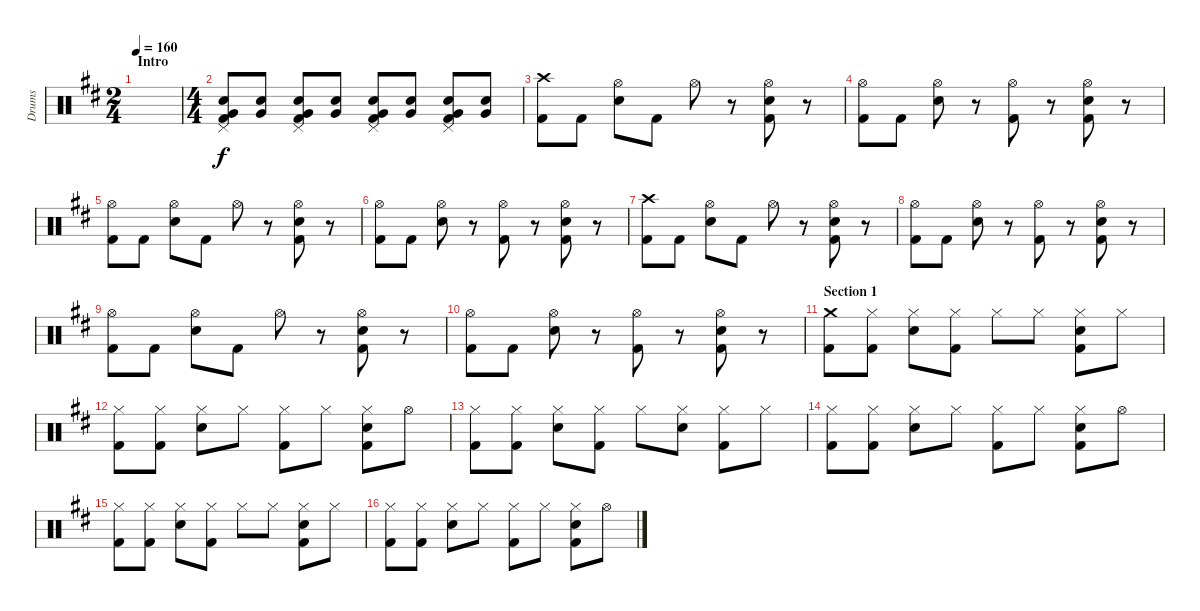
\track ("Drums" "Drums") {instrument percussion}
\staff {score}
\articulation defaults
\ts (2 4)
\section ("" "Intro")
\tempo 160
\clef neutral
\ks bminor
|
\ts (4 4)
("Pedal Hi-Hat (hit)" "Snare (hit) 2" "Very Low Tom (hit)" "Kick (hit) 2").8{volume 14} ("Snare (hit) 2" "Very Low Tom (hit)").8 ("Pedal Hi-Hat (hit)" "Snare (hit) 2" "Very Low Tom (hit)" "Kick (hit) 2").8 ("Snare (hit) 2" "Very Low Tom (hit)").8 ("Pedal Hi-Hat (hit)" "Snare (hit) 2" "Very Low Tom (hit)" "Kick (hit) 2").8 ("Snare (hit) 2" "Very Low Tom (hit)").8 ("Pedal Hi-Hat (hit)" "Snare (hit) 2" "Very Low Tom (hit)" "Kick (hit) 2").8 ("Snare (hit) 2" "Very Low Tom (hit)").8 |
("Crash high (hit)" "Kick (hit) 2").8{volume 14} "Kick (hit) 2".8 ("Hi-Hat (open)" "Snare (hit) 2").8 "Kick (hit) 2".8 "Hi-Hat (open)".8 r.8 ("Hi-Hat (open)" "Snare (hit) 2" "Kick (hit) 2").8 r.8 |
("Hi-Hat (open)" "Kick (hit) 2").8 "Kick (hit) 2".8 ("Hi-Hat (open)" "Snare (hit) 2").8 r.8 ("Hi-Hat (open)" "Kick (hit) 2").8 r.8 ("Hi-Hat (open)" "Snare (hit) 2" "Kick (hit) 2").8 r.8 |
("Hi-Hat (open)" "Kick (hit) 2").8 "Kick (hit) 2".8 ("Hi-Hat (open)" "Snare (hit) 2").8 "Kick (hit) 2".8 "Hi-Hat (open)".8 r.8 ("Hi-Hat (open)" "Snare (hit) 2" "Kick (hit) 2").8 r.8 |
("Hi-Hat (open)" "Kick (hit) 2").8 "Kick (hit) 2".8 ("Hi-Hat (open)" "Snare (hit) 2").8 r.8 ("Hi-Hat (open)" "Kick (hit) 2").8 r.8 ("Hi-Hat (open)" "Snare (hit) 2" "Kick (hit) 2").8 r.8 |
("Crash high (hit)" "Kick (hit) 2").8 "Kick (hit) 2".8 ("Hi-Hat (open)" "Snare (hit) 2").8 "Kick (hit) 2".8 "Hi-Hat (open)".8 r.8 ("Hi-Hat (open)" "Snare (hit) 2" "Kick (hit) 2").8 r.8 |
("Hi-Hat (open)" "Kick (hit) 2").8 "Kick (hit) 2".8 ("Hi-Hat (open)" "Snare (hit) 2").8 r.8 ("Hi-Hat (open)" "Kick (hit) 2").8 r.8 ("Hi-Hat (open)" "Snare (hit) 2" "Kick (hit) 2").8 r.8 |
("Hi-Hat (open)" "Kick (hit) 2").8 "Kick (hit) 2".8 ("Hi-Hat (open)" "Snare (hit) 2").8 "Kick (hit) 2".8 "Hi-Hat (open)".8 r.8 ("Hi-Hat (open)" "Snare (hit) 2" "Kick (hit) 2").8 r.8 |
("Hi-Hat (open)" "Kick (hit) 2").8 "Kick (hit) 2".8 ("Hi-Hat (open)" "Snare (hit) 2").8 r.8 ("Hi-Hat (open)" "Kick (hit) 2").8 r.8 ("Hi-Hat (open)" "Snare (hit) 2" "Kick (hit) 2").8 r.8 |
\section ("" "Section 1")
("Crash medium (hit)" "Kick (hit) 2").8 ("Hi-Hat (closed)" "Kick (hit) 2").8 ("Hi-Hat (closed)" "Snare (hit) 2").8 ("Hi-Hat (closed)" "Kick (hit) 2").8 "Hi-Hat (closed)".8 "Hi-Hat (closed)".8 ("Hi-Hat (closed)" "Snare (hit) 2" "Kick (hit) 2").8 "Hi-Hat (closed)".8 |
("Hi-Hat (closed)" "Kick (hit) 2").8 ("Hi-Hat (closed)" "Kick (hit) 2").8 ("Hi-Hat (closed)" "Snare (hit) 2").8 "Hi-Hat (closed)".8 ("Hi-Hat (closed)" "Kick (hit) 2").8 "Hi-Hat (closed)".8 ("Hi-Hat (closed)" "Snare (hit) 2" "Kick (hit) 2").8 "Hi-Hat (open)".8 |
("Hi-Hat (closed)" "Kick (hit) 2").8 ("Hi-Hat (closed)" "Kick (hit) 2").8 ("Hi-Hat (closed)" "Snare (hit) 2").8 ("Hi-Hat (closed)" "Kick (hit) 2").8 "Hi-Hat (closed)".8 ("Hi-Hat (closed)" "Snare (hit) 2").8 ("Hi-Hat (closed)" "Kick (hit) 2").8 "Hi-Hat (closed)".8 |
("Hi-Hat (closed)" "Kick (hit) 2").8 ("Hi-Hat (closed)" "Kick (hit) 2").8 ("Hi-Hat (closed)" "Snare (hit) 2").8 "Hi-Hat (closed)".8 ("Hi-Hat (closed)" "Kick (hit) 2").8 "Hi-Hat (closed)".8 ("Hi-Hat (closed)" "Snare (hit) 2" "Kick (hit) 2").8 "Hi-Hat (open)".8 |
("Hi-Hat (closed)" "Kick (hit) 2").8 ("Hi-Hat (closed)" "Kick (hit) 2").8 ("Hi-Hat (closed)" "Snare (hit) 2").8 ("Hi-Hat (closed)" "Kick (hit) 2").8 "Hi-Hat (closed)".8 "Hi-Hat (closed)".8 ("Hi-Hat (closed)" "Snare (hit) 2" "Kick (hit) 2").8 "Hi-Hat (closed)".8 |
("Hi-Hat (closed)" "Kick (hit) 2").8 ("Hi-Hat (closed)" "Kick (hit) 2").8 ("Hi-Hat (closed)" "Snare (hit) 2").8 "Hi-Hat (closed)".8 ("Hi-Hat (closed)" "Kick (hit) 2").8 "Hi-Hat (closed)".8 ("Hi-Hat (closed)" "Snare (hit) 2" "Kick (hit) 2").8 "Hi-Hat (open)".8
